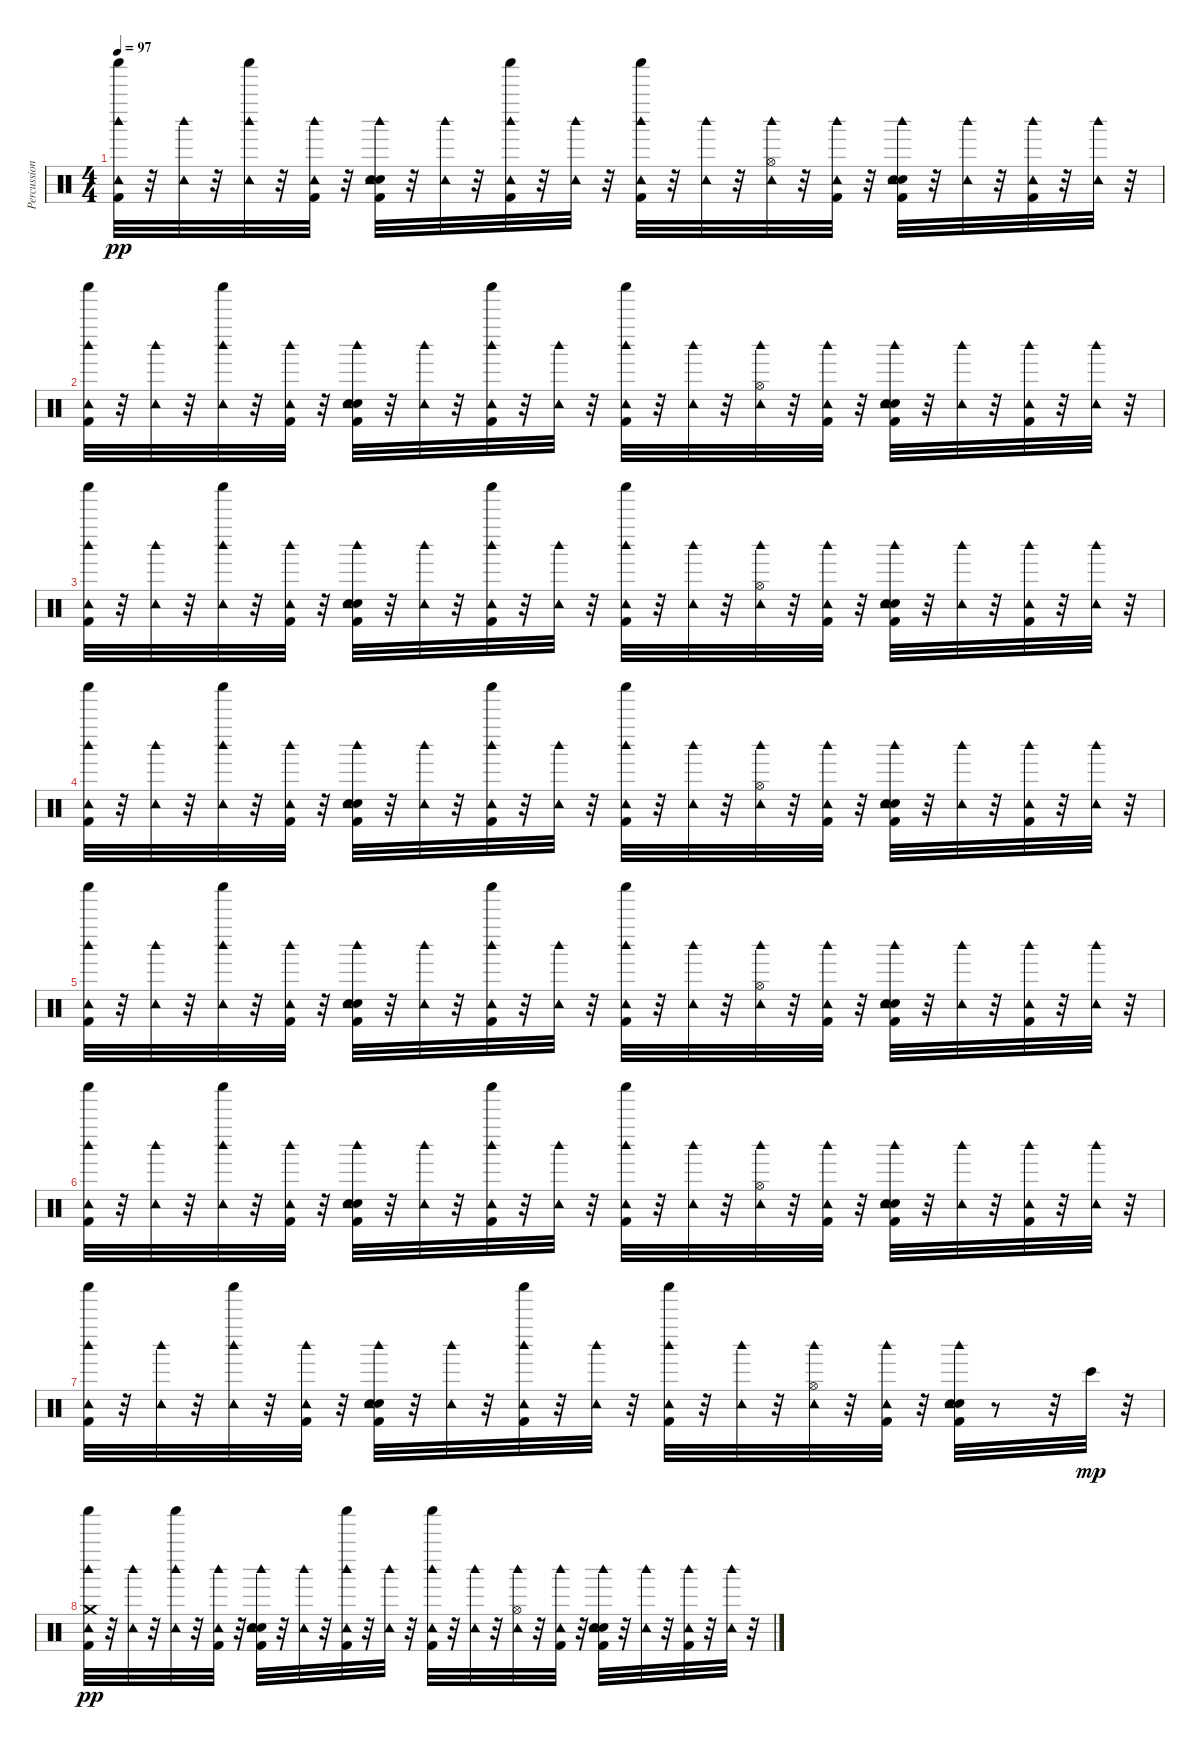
\track ("Percussion" "Percussion") {instrument percussion}
\staff {score}
\articulation defaults
\ts (4 4)
\tempo 97
\clef neutral
\ks c
("Kick (hit) 2" "Tambourine (hit)" "Shaker (hit)" "Woodblock high (hit)").32{dy pp} r.32 ("Tambourine (hit)" "Woodblock high (hit)").32 r.32 ("Tambourine (hit)" "Shaker (hit)" "Woodblock high (hit)").32 r.32 ("Kick (hit) 2" "Tambourine (hit)" "Woodblock high (hit)").32 r.32 ("Kick (hit) 2" "Snare (hit) 2" "Hand Clap (hit)" "Tambourine (hit)" "Woodblock high (hit)").32 r.32 ("Tambourine (hit)" "Woodblock high (hit)").32 r.32 ("Kick (hit) 2" "Tambourine (hit)" "Shaker (hit)" "Woodblock high (hit)").32 r.32 ("Tambourine (hit)" "Woodblock high (hit)").32 r.32 ("Kick (hit) 2" "Tambourine (hit)" "Shaker (hit)" "Woodblock high (hit)").32 r.32 ("Tambourine (hit)" "Woodblock high (hit)").32 r.32 ("Hi-Hat (open)" "Tambourine (hit)" "Woodblock high (hit)").32 r.32 ("Kick (hit) 2" "Tambourine (hit)" "Woodblock high (hit)").32 r.32 ("Kick (hit) 2" "Snare (hit) 2" "Hand Clap (hit)" "Tambourine (hit)" "Woodblock high (hit)").32 r.32 ("Tambourine (hit)" "Woodblock high (hit)").32 r.32 ("Kick (hit) 2" "Tambourine (hit)" "Woodblock high (hit)").32 r.32 ("Tambourine (hit)" "Woodblock high (hit)").32 r.32 |
("Kick (hit) 2" "Tambourine (hit)" "Shaker (hit)" "Woodblock high (hit)").32 r.32 ("Tambourine (hit)" "Woodblock high (hit)").32 r.32 ("Tambourine (hit)" "Shaker (hit)" "Woodblock high (hit)").32 r.32 ("Kick (hit) 2" "Tambourine (hit)" "Woodblock high (hit)").32 r.32 ("Kick (hit) 2" "Snare (hit) 2" "Hand Clap (hit)" "Tambourine (hit)" "Woodblock high (hit)").32 r.32 ("Tambourine (hit)" "Woodblock high (hit)").32 r.32 ("Kick (hit) 2" "Tambourine (hit)" "Shaker (hit)" "Woodblock high (hit)").32 r.32 ("Tambourine (hit)" "Woodblock high (hit)").32 r.32 ("Kick (hit) 2" "Tambourine (hit)" "Shaker (hit)" "Woodblock high (hit)").32 r.32 ("Tambourine (hit)" "Woodblock high (hit)").32 r.32 ("Hi-Hat (open)" "Tambourine (hit)" "Woodblock high (hit)").32 r.32 ("Kick (hit) 2" "Tambourine (hit)" "Woodblock high (hit)").32 r.32 ("Kick (hit) 2" "Snare (hit) 2" "Hand Clap (hit)" "Tambourine (hit)" "Woodblock high (hit)").32 r.32 ("Tambourine (hit)" "Woodblock high (hit)").32 r.32 ("Kick (hit) 2" "Tambourine (hit)" "Woodblock high (hit)").32 r.32 ("Tambourine (hit)" "Woodblock high (hit)").32 r.32 |
("Kick (hit) 2" "Tambourine (hit)" "Shaker (hit)" "Woodblock high (hit)").32 r.32 ("Tambourine (hit)" "Woodblock high (hit)").32 r.32 ("Tambourine (hit)" "Shaker (hit)" "Woodblock high (hit)").32 r.32 ("Kick (hit) 2" "Tambourine (hit)" "Woodblock high (hit)").32 r.32 ("Kick (hit) 2" "Snare (hit) 2" "Hand Clap (hit)" "Tambourine (hit)" "Woodblock high (hit)").32 r.32 ("Tambourine (hit)" "Woodblock high (hit)").32 r.32 ("Kick (hit) 2" "Tambourine (hit)" "Shaker (hit)" "Woodblock high (hit)").32 r.32 ("Tambourine (hit)" "Woodblock high (hit)").32 r.32 ("Kick (hit) 2" "Tambourine (hit)" "Shaker (hit)" "Woodblock high (hit)").32 r.32 ("Tambourine (hit)" "Woodblock high (hit)").32 r.32 ("Hi-Hat (open)" "Tambourine (hit)" "Woodblock high (hit)").32 r.32 ("Kick (hit) 2" "Tambourine (hit)" "Woodblock high (hit)").32 r.32 ("Kick (hit) 2" "Snare (hit) 2" "Hand Clap (hit)" "Tambourine (hit)" "Woodblock high (hit)").32 r.32 ("Tambourine (hit)" "Woodblock high (hit)").32 r.32 ("Kick (hit) 2" "Tambourine (hit)" "Woodblock high (hit)").32 r.32 ("Tambourine (hit)" "Woodblock high (hit)").32 r.32 |
("Kick (hit) 2" "Tambourine (hit)" "Shaker (hit)" "Woodblock high (hit)").32 r.32 ("Tambourine (hit)" "Woodblock high (hit)").32 r.32 ("Tambourine (hit)" "Shaker (hit)" "Woodblock high (hit)").32 r.32 ("Kick (hit) 2" "Tambourine (hit)" "Woodblock high (hit)").32 r.32 ("Kick (hit) 2" "Snare (hit) 2" "Hand Clap (hit)" "Tambourine (hit)" "Woodblock high (hit)").32 r.32 ("Tambourine (hit)" "Woodblock high (hit)").32 r.32 ("Kick (hit) 2" "Tambourine (hit)" "Shaker (hit)" "Woodblock high (hit)").32 r.32 ("Tambourine (hit)" "Woodblock high (hit)").32 r.32 ("Kick (hit) 2" "Tambourine (hit)" "Shaker (hit)" "Woodblock high (hit)").32 r.32 ("Tambourine (hit)" "Woodblock high (hit)").32 r.32 ("Hi-Hat (open)" "Tambourine (hit)" "Woodblock high (hit)").32 r.32 ("Kick (hit) 2" "Tambourine (hit)" "Woodblock high (hit)").32 r.32 ("Kick (hit) 2" "Snare (hit) 2" "Hand Clap (hit)" "Tambourine (hit)" "Woodblock high (hit)").32 r.32 ("Tambourine (hit)" "Woodblock high (hit)").32 r.32 ("Kick (hit) 2" "Tambourine (hit)" "Woodblock high (hit)").32 r.32 ("Tambourine (hit)" "Woodblock high (hit)").32 r.32 |
("Kick (hit) 2" "Tambourine (hit)" "Shaker (hit)" "Woodblock high (hit)").32 r.32 ("Tambourine (hit)" "Woodblock high (hit)").32 r.32 ("Tambourine (hit)" "Shaker (hit)" "Woodblock high (hit)").32 r.32 ("Kick (hit) 2" "Tambourine (hit)" "Woodblock high (hit)").32 r.32 ("Kick (hit) 2" "Snare (hit) 2" "Hand Clap (hit)" "Tambourine (hit)" "Woodblock high (hit)").32 r.32 ("Tambourine (hit)" "Woodblock high (hit)").32 r.32 ("Kick (hit) 2" "Tambourine (hit)" "Shaker (hit)" "Woodblock high (hit)").32 r.32 ("Tambourine (hit)" "Woodblock high (hit)").32 r.32 ("Kick (hit) 2" "Tambourine (hit)" "Shaker (hit)" "Woodblock high (hit)").32 r.32 ("Tambourine (hit)" "Woodblock high (hit)").32 r.32 ("Hi-Hat (open)" "Tambourine (hit)" "Woodblock high (hit)").32 r.32 ("Kick (hit) 2" "Tambourine (hit)" "Woodblock high (hit)").32 r.32 ("Kick (hit) 2" "Snare (hit) 2" "Hand Clap (hit)" "Tambourine (hit)" "Woodblock high (hit)").32 r.32 ("Tambourine (hit)" "Woodblock high (hit)").32 r.32 ("Kick (hit) 2" "Tambourine (hit)" "Woodblock high (hit)").32 r.32 ("Tambourine (hit)" "Woodblock high (hit)").32 r.32 |
("Kick (hit) 2" "Tambourine (hit)" "Shaker (hit)" "Woodblock high (hit)").32 r.32 ("Tambourine (hit)" "Woodblock high (hit)").32 r.32 ("Tambourine (hit)" "Shaker (hit)" "Woodblock high (hit)").32 r.32 ("Kick (hit) 2" "Tambourine (hit)" "Woodblock high (hit)").32 r.32 ("Kick (hit) 2" "Snare (hit) 2" "Hand Clap (hit)" "Tambourine (hit)" "Woodblock high (hit)").32 r.32 ("Tambourine (hit)" "Woodblock high (hit)").32 r.32 ("Kick (hit) 2" "Tambourine (hit)" "Shaker (hit)" "Woodblock high (hit)").32 r.32 ("Tambourine (hit)" "Woodblock high (hit)").32 r.32 ("Kick (hit) 2" "Tambourine (hit)" "Shaker (hit)" "Woodblock high (hit)").32 r.32 ("Tambourine (hit)" "Woodblock high (hit)").32 r.32 ("Hi-Hat (open)" "Tambourine (hit)" "Woodblock high (hit)").32 r.32 ("Kick (hit) 2" "Tambourine (hit)" "Woodblock high (hit)").32 r.32 ("Kick (hit) 2" "Snare (hit) 2" "Hand Clap (hit)" "Tambourine (hit)" "Woodblock high (hit)").32 r.32 ("Tambourine (hit)" "Woodblock high (hit)").32 r.32 ("Kick (hit) 2" "Tambourine (hit)" "Woodblock high (hit)").32 r.32 ("Tambourine (hit)" "Woodblock high (hit)").32 r.32 |
("Kick (hit) 2" "Tambourine (hit)" "Shaker (hit)" "Woodblock high (hit)").32 r.32 ("Tambourine (hit)" "Woodblock high (hit)").32 r.32 ("Tambourine (hit)" "Shaker (hit)" "Woodblock high (hit)").32 r.32 ("Kick (hit) 2" "Tambourine (hit)" "Woodblock high (hit)").32 r.32 ("Kick (hit) 2" "Snare (hit) 2" "Hand Clap (hit)" "Tambourine (hit)" "Woodblock high (hit)").32 r.32 ("Tambourine (hit)" "Woodblock high (hit)").32 r.32 ("Kick (hit) 2" "Tambourine (hit)" "Shaker (hit)" "Woodblock high (hit)").32 r.32 ("Tambourine (hit)" "Woodblock high (hit)").32 r.32 ("Kick (hit) 2" "Tambourine (hit)" "Shaker (hit)" "Woodblock high (hit)").32 r.32 ("Tambourine (hit)" "Woodblock high (hit)").32 r.32 ("Hi-Hat (open)" "Tambourine (hit)" "Woodblock high (hit)").32 r.32 ("Kick (hit) 2" "Tambourine (hit)" "Woodblock high (hit)").32 r.32 ("Kick (hit) 2" "Snare (hit) 2" "Hand Clap (hit)" "Tambourine (hit)" "Woodblock high (hit)").32 r.8 r.32 "Bongo High (hit)".32{dy mp} r.32 |
("Kick (hit) 2" "Tambourine (hit)" "Crash medium (hit)" "Shaker (hit)" "Woodblock high (hit)").32{dy pp} r.32 ("Tambourine (hit)" "Woodblock high (hit)").32 r.32 ("Tambourine (hit)" "Shaker (hit)" "Woodblock high (hit)").32 r.32 ("Kick (hit) 2" "Tambourine (hit)" "Woodblock high (hit)").32 r.32 ("Kick (hit) 2" "Snare (hit) 2" "Hand Clap (hit)" "Tambourine (hit)" "Woodblock high (hit)").32 r.32 ("Tambourine (hit)" "Woodblock high (hit)").32 r.32 ("Kick (hit) 2" "Tambourine (hit)" "Shaker (hit)" "Woodblock high (hit)").32 r.32 ("Tambourine (hit)" "Woodblock high (hit)").32 r.32 ("Kick (hit) 2" "Tambourine (hit)" "Shaker (hit)" "Woodblock high (hit)").32 r.32 ("Tambourine (hit)" "Woodblock high (hit)").32 r.32 ("Hi-Hat (open)" "Tambourine (hit)" "Woodblock high (hit)").32 r.32 ("Kick (hit) 2" "Tambourine (hit)" "Woodblock high (hit)").32 r.32 ("Kick (hit) 2" "Snare (hit) 2" "Hand Clap (hit)" "Tambourine (hit)" "Woodblock high (hit)").32 r.32 ("Tambourine (hit)" "Woodblock high (hit)").32 r.32 ("Kick (hit) 2" "Tambourine (hit)" "Woodblock high (hit)").32 r.32 ("Tambourine (hit)" "Woodblock high (hit)").32 r.32
